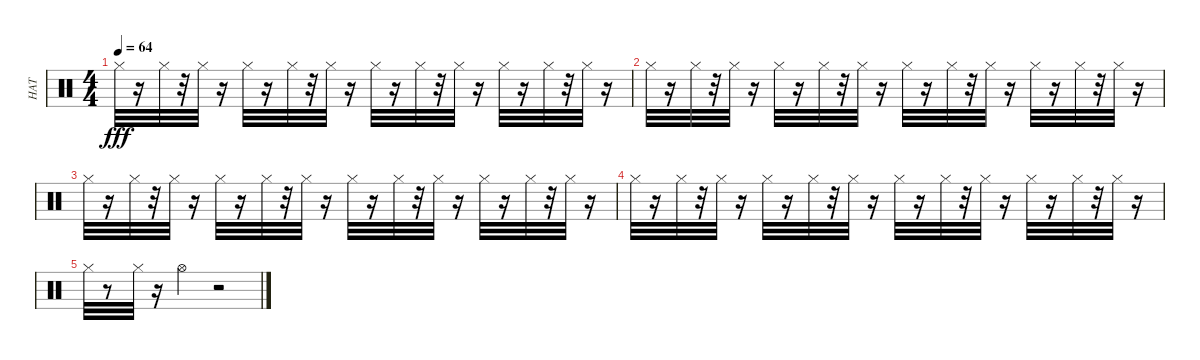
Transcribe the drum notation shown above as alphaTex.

\track ("HAT" "HAT") {instrument percussion}
\staff {score}
\articulation defaults
\ts (4 4)
\tempo 64
\clef neutral
\ks c "Hi-Hat (closed)".32{dy fff}
r.16 "Hi-Hat (closed)".32 r.32 "Hi-Hat (closed)".32 r.16 "Hi-Hat (closed)".32 r.16 "Hi-Hat (closed)".32 r.32 "Hi-Hat (closed)".32 r.16 "Hi-Hat (closed)".32 r.16 "Hi-Hat (closed)".32 r.32 "Hi-Hat (closed)".32 r.16 "Hi-Hat (closed)".32 r.16 "Hi-Hat (closed)".32 r.32 "Hi-Hat (closed)".32 r.16 |
"Hi-Hat (closed)".32 r.16 "Hi-Hat (closed)".32 r.32 "Hi-Hat (closed)".32 r.16 "Hi-Hat (closed)".32 r.16 "Hi-Hat (closed)".32 r.32 "Hi-Hat (closed)".32 r.16 "Hi-Hat (closed)".32 r.16 "Hi-Hat (closed)".32 r.32 "Hi-Hat (closed)".32 r.16 "Hi-Hat (closed)".32 r.16 "Hi-Hat (closed)".32 r.32 "Hi-Hat (closed)".32 r.16 |
"Hi-Hat (closed)".32 r.16 "Hi-Hat (closed)".32 r.32 "Hi-Hat (closed)".32 r.16 "Hi-Hat (closed)".32 r.16 "Hi-Hat (closed)".32 r.32 "Hi-Hat (closed)".32 r.16 "Hi-Hat (closed)".32 r.16 "Hi-Hat (closed)".32 r.32 "Hi-Hat (closed)".32 r.16 "Hi-Hat (closed)".32 r.16 "Hi-Hat (closed)".32 r.32 "Hi-Hat (closed)".32 r.16 |
"Hi-Hat (closed)".32 r.16 "Hi-Hat (closed)".32 r.32 "Hi-Hat (closed)".32 r.16 "Hi-Hat (closed)".32 r.16 "Hi-Hat (closed)".32 r.32 "Hi-Hat (closed)".32 r.16 "Hi-Hat (closed)".32 r.16 "Hi-Hat (closed)".32 r.32 "Hi-Hat (closed)".32 r.16 "Hi-Hat (closed)".32 r.16 "Hi-Hat (closed)".32 r.32 "Hi-Hat (closed)".32 r.16 |
"Hi-Hat (closed)".32 r.8 "Hi-Hat (closed)".32 r.16 "Hi-Hat (open)".4 r.2
